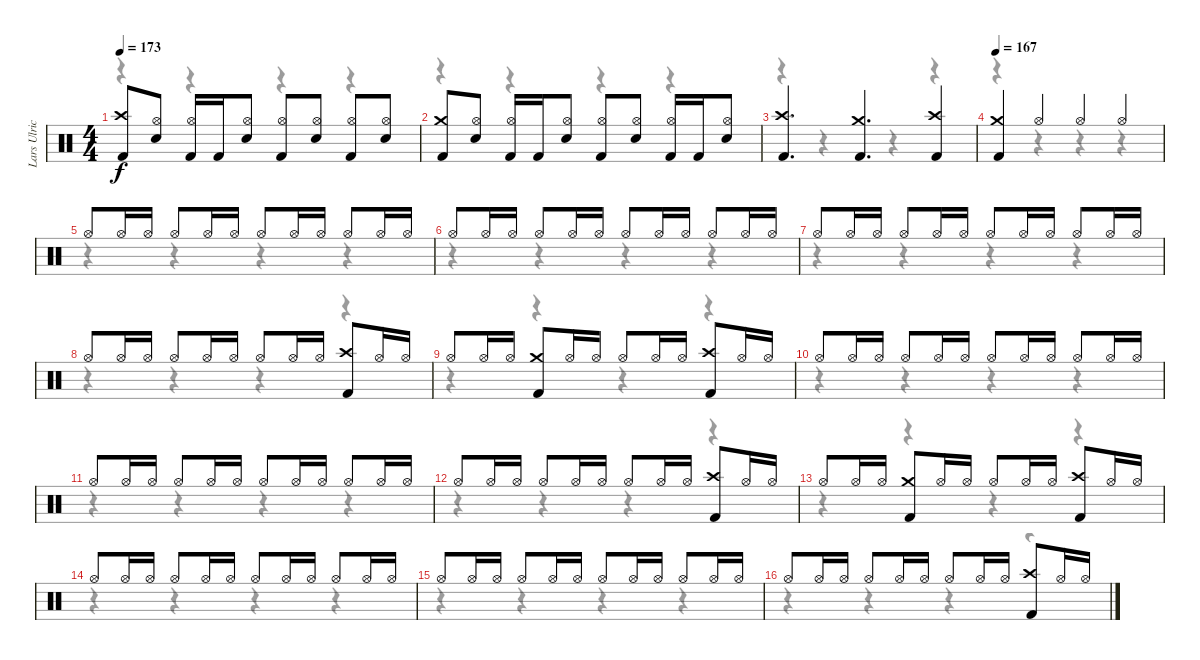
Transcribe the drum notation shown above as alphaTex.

\track ("Lars Ulrich" "Lars Ulric") {instrument percussion}
\staff {score}
\articulation defaults
\voice
\ts (4 4)
\tempo 173
\clef neutral
\ks c
("Crash high (hit)" "Kick (hit) 2").8{dy f} ("Hi-Hat (open)" "Snare (hit) 2").8 ("Hi-Hat (open)" "Kick (hit) 2").16 "Kick (hit) 2".16 ("Hi-Hat (open)" "Snare (hit) 2").8 ("Hi-Hat (open)" "Kick (hit) 2").8 ("Hi-Hat (open)" "Snare (hit) 2").8 ("Hi-Hat (open)" "Kick (hit) 2").8 ("Hi-Hat (open)" "Snare (hit) 2").8 |
("Crash medium (hit)" "Kick (hit) 2").8 ("Hi-Hat (open)" "Snare (hit) 2").8 ("Hi-Hat (open)" "Kick (hit) 2").16 "Kick (hit) 2".16 ("Hi-Hat (open)" "Snare (hit) 2").8 ("Hi-Hat (open)" "Kick (hit) 2").8 ("Hi-Hat (open)" "Snare (hit) 2").8 ("Hi-Hat (open)" "Kick (hit) 2").16 "Kick (hit) 2".16 ("Hi-Hat (open)" "Snare (hit) 2").8 |
("Crash high (hit)" "Kick (hit) 2").4{d} ("Crash medium (hit)" "Kick (hit) 2").4{d} ("Crash high (hit)" "Kick (hit) 2").4 |
\tempo 167
("Crash medium (hit)" "Kick (hit) 2").4 "Hi-Hat (open)".4 "Hi-Hat (open)".4 "Hi-Hat (open)".4 |
"Hi-Hat (open)".8 "Hi-Hat (open)".16 "Hi-Hat (open)".16 "Hi-Hat (open)".8 "Hi-Hat (open)".16 "Hi-Hat (open)".16 "Hi-Hat (open)".8 "Hi-Hat (open)".16 "Hi-Hat (open)".16 "Hi-Hat (open)".8 "Hi-Hat (open)".16 "Hi-Hat (open)".16 |
"Hi-Hat (open)".8 "Hi-Hat (open)".16 "Hi-Hat (open)".16 "Hi-Hat (open)".8 "Hi-Hat (open)".16 "Hi-Hat (open)".16 "Hi-Hat (open)".8 "Hi-Hat (open)".16 "Hi-Hat (open)".16 "Hi-Hat (open)".8 "Hi-Hat (open)".16 "Hi-Hat (open)".16 |
"Hi-Hat (open)".8 "Hi-Hat (open)".16 "Hi-Hat (open)".16 "Hi-Hat (open)".8 "Hi-Hat (open)".16 "Hi-Hat (open)".16 "Hi-Hat (open)".8 "Hi-Hat (open)".16 "Hi-Hat (open)".16 "Hi-Hat (open)".8 "Hi-Hat (open)".16 "Hi-Hat (open)".16 |
"Hi-Hat (open)".8 "Hi-Hat (open)".16 "Hi-Hat (open)".16 "Hi-Hat (open)".8 "Hi-Hat (open)".16 "Hi-Hat (open)".16 "Hi-Hat (open)".8 "Hi-Hat (open)".16 "Hi-Hat (open)".16 ("Crash high (hit)" "Kick (hit) 2").8 "Hi-Hat (open)".16 "Hi-Hat (open)".16 |
"Hi-Hat (open)".8 "Hi-Hat (open)".16 "Hi-Hat (open)".16 ("Crash medium (hit)" "Kick (hit) 2").8 "Hi-Hat (open)".16 "Hi-Hat (open)".16 "Hi-Hat (open)".8 "Hi-Hat (open)".16 "Hi-Hat (open)".16 ("Crash high (hit)" "Kick (hit) 2").8 "Hi-Hat (open)".16 "Hi-Hat (open)".16 |
"Hi-Hat (open)".8 "Hi-Hat (open)".16 "Hi-Hat (open)".16 "Hi-Hat (open)".8 "Hi-Hat (open)".16 "Hi-Hat (open)".16 "Hi-Hat (open)".8 "Hi-Hat (open)".16 "Hi-Hat (open)".16 "Hi-Hat (open)".8 "Hi-Hat (open)".16 "Hi-Hat (open)".16 |
"Hi-Hat (open)".8 "Hi-Hat (open)".16 "Hi-Hat (open)".16 "Hi-Hat (open)".8 "Hi-Hat (open)".16 "Hi-Hat (open)".16 "Hi-Hat (open)".8 "Hi-Hat (open)".16 "Hi-Hat (open)".16 "Hi-Hat (open)".8 "Hi-Hat (open)".16 "Hi-Hat (open)".16 |
"Hi-Hat (open)".8 "Hi-Hat (open)".16 "Hi-Hat (open)".16 "Hi-Hat (open)".8 "Hi-Hat (open)".16 "Hi-Hat (open)".16 "Hi-Hat (open)".8 "Hi-Hat (open)".16 "Hi-Hat (open)".16 ("Crash high (hit)" "Kick (hit) 2").8 "Hi-Hat (open)".16 "Hi-Hat (open)".16 |
"Hi-Hat (open)".8 "Hi-Hat (open)".16 "Hi-Hat (open)".16 ("Crash medium (hit)" "Kick (hit) 2").8 "Hi-Hat (open)".16 "Hi-Hat (open)".16 "Hi-Hat (open)".8 "Hi-Hat (open)".16 "Hi-Hat (open)".16 ("Crash high (hit)" "Kick (hit) 2").8 "Hi-Hat (open)".16 "Hi-Hat (open)".16 |
"Hi-Hat (open)".8 "Hi-Hat (open)".16 "Hi-Hat (open)".16 "Hi-Hat (open)".8 "Hi-Hat (open)".16 "Hi-Hat (open)".16 "Hi-Hat (open)".8 "Hi-Hat (open)".16 "Hi-Hat (open)".16 "Hi-Hat (open)".8 "Hi-Hat (open)".16 "Hi-Hat (open)".16 |
"Hi-Hat (open)".8 "Hi-Hat (open)".16 "Hi-Hat (open)".16 "Hi-Hat (open)".8 "Hi-Hat (open)".16 "Hi-Hat (open)".16 "Hi-Hat (open)".8 "Hi-Hat (open)".16 "Hi-Hat (open)".16 "Hi-Hat (open)".8 "Hi-Hat (open)".16 "Hi-Hat (open)".16 |
"Hi-Hat (open)".8 "Hi-Hat (open)".16 "Hi-Hat (open)".16 "Hi-Hat (open)".8 "Hi-Hat (open)".16 "Hi-Hat (open)".16 "Hi-Hat (open)".8 "Hi-Hat (open)".16 "Hi-Hat (open)".16 ("Crash high (hit)" "Kick (hit) 2").8 "Hi-Hat (open)".16 "Hi-Hat (open)".16
\voice
\clef neutral
\ottava regular
\simile none
\ks c
r.4{dy f} r.4 r.4 r.4 |
r.4 r.4 r.4 r.4 |
r.4 r.4 r.4 r.4 |
r.4 r.4 r.4 r.4 |
r.4 r.4 r.4 r.4 |
r.4 r.4 r.4 r.4 |
r.4 r.4 r.4 r.4 |
r.4 r.4 r.4 r.4 |
r.4 r.4 r.4 r.4 |
r.4 r.4 r.4 r.4 |
r.4 r.4 r.4 r.4 |
r.4 r.4 r.4 r.4 |
r.4 r.4 r.4 r.4 |
r.4 r.4 r.4 r.4 |
r.4 r.4 r.4 r.4 |
r.4 r.4 r.4 r.4
